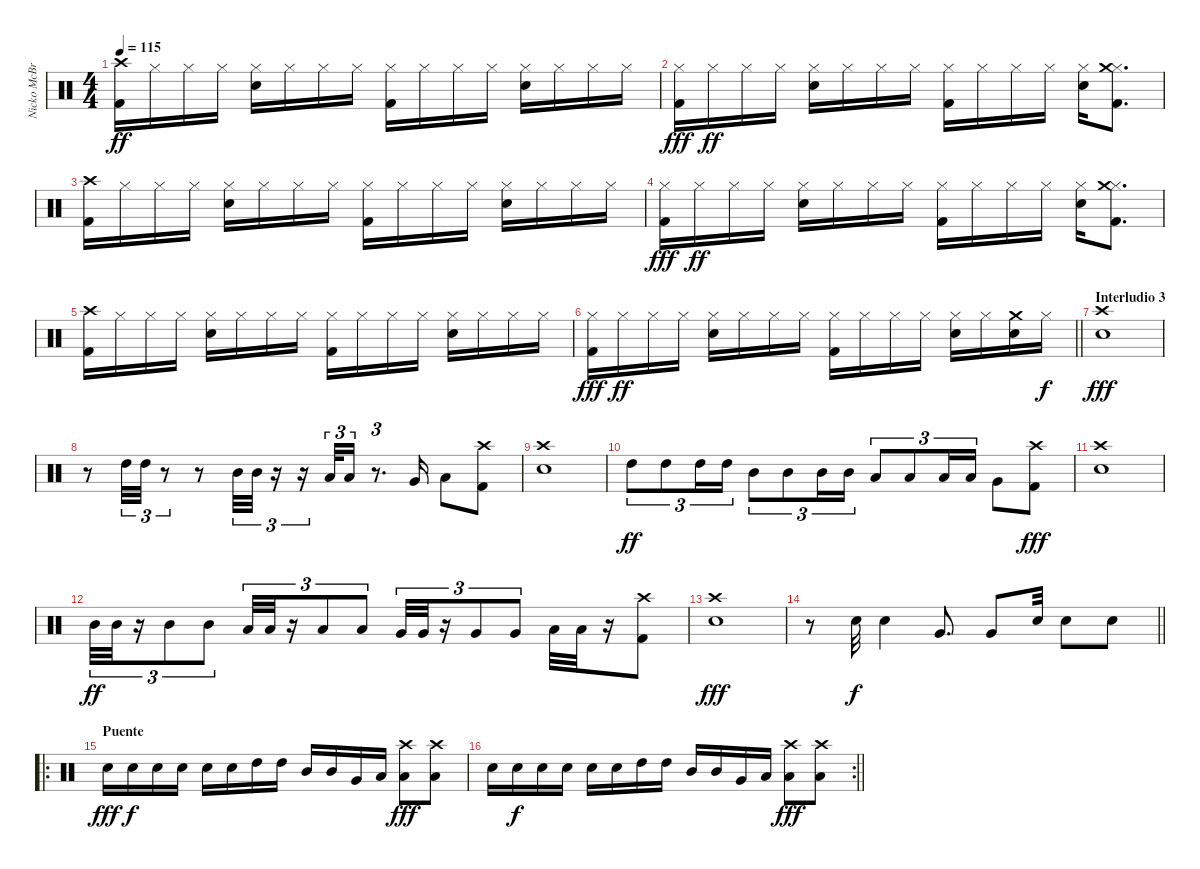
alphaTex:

\track ("Nicko McBrain" "Nicko McBr") {instrument percussion}
\staff {score}
\articulation defaults
\ts (4 4)
\tempo 115
\clef neutral
\ks c
("Kick (hit) 2" "Crash high (hit)").16{dy ff} "Hi-Hat (closed)".16 "Hi-Hat (closed)".16 "Hi-Hat (closed)".16 ("Snare (hit) 2" "Hi-Hat (closed)").16 "Hi-Hat (closed)".16 "Hi-Hat (closed)".16 "Hi-Hat (closed)".16 ("Kick (hit) 2" "Hi-Hat (closed)").16 "Hi-Hat (closed)".16 "Hi-Hat (closed)".16 "Hi-Hat (closed)".16 ("Snare (hit) 2" "Hi-Hat (closed)").16 "Hi-Hat (closed)".16 "Hi-Hat (closed)".16 "Hi-Hat (closed)".16 |
("Kick (hit) 2" "Hi-Hat (closed)").16{dy fff} "Hi-Hat (closed)".16{dy ff} "Hi-Hat (closed)".16 "Hi-Hat (closed)".16 ("Snare (hit) 2" "Hi-Hat (closed)").16 "Hi-Hat (closed)".16 "Hi-Hat (closed)".16 "Hi-Hat (closed)".16 ("Kick (hit) 2" "Hi-Hat (closed)").16 "Hi-Hat (closed)".16 "Hi-Hat (closed)".16 "Hi-Hat (closed)".16 ("Snare (hit) 2" "Hi-Hat (closed)").16 ("Hi-Hat (closed)" "Kick (hit) 2" "Crash medium (hit)").8{d} |
("Kick (hit) 2" "Crash high (hit)").16 "Hi-Hat (closed)".16 "Hi-Hat (closed)".16 "Hi-Hat (closed)".16 ("Snare (hit) 2" "Hi-Hat (closed)").16 "Hi-Hat (closed)".16 "Hi-Hat (closed)".16 "Hi-Hat (closed)".16 ("Kick (hit) 2" "Hi-Hat (closed)").16 "Hi-Hat (closed)".16 "Hi-Hat (closed)".16 "Hi-Hat (closed)".16 ("Snare (hit) 2" "Hi-Hat (closed)").16 "Hi-Hat (closed)".16 "Hi-Hat (closed)".16 "Hi-Hat (closed)".16 |
("Kick (hit) 2" "Hi-Hat (closed)").16{dy fff} "Hi-Hat (closed)".16{dy ff} "Hi-Hat (closed)".16 "Hi-Hat (closed)".16 ("Snare (hit) 2" "Hi-Hat (closed)").16 "Hi-Hat (closed)".16 "Hi-Hat (closed)".16 "Hi-Hat (closed)".16 ("Kick (hit) 2" "Hi-Hat (closed)").16 "Hi-Hat (closed)".16 "Hi-Hat (closed)".16 "Hi-Hat (closed)".16 ("Snare (hit) 2" "Hi-Hat (closed)").16 ("Hi-Hat (closed)" "Kick (hit) 2" "Crash medium (hit)").8{d} |
("Kick (hit) 2" "Crash high (hit)").16 "Hi-Hat (closed)".16 "Hi-Hat (closed)".16 "Hi-Hat (closed)".16 ("Snare (hit) 2" "Hi-Hat (closed)").16 "Hi-Hat (closed)".16 "Hi-Hat (closed)".16 "Hi-Hat (closed)".16 ("Kick (hit) 2" "Hi-Hat (closed)").16 "Hi-Hat (closed)".16 "Hi-Hat (closed)".16 "Hi-Hat (closed)".16 ("Snare (hit) 2" "Hi-Hat (closed)").16 "Hi-Hat (closed)".16 "Hi-Hat (closed)".16 "Hi-Hat (closed)".16 |
\barLineRight lightlight
("Kick (hit) 2" "Hi-Hat (closed)").16{dy fff} "Hi-Hat (closed)".16{dy ff} "Hi-Hat (closed)".16 "Hi-Hat (closed)".16 ("Snare (hit) 2" "Hi-Hat (closed)").16 "Hi-Hat (closed)".16 "Hi-Hat (closed)".16 "Hi-Hat (closed)".16 ("Kick (hit) 2" "Hi-Hat (closed)").16 "Hi-Hat (closed)".16 "Hi-Hat (closed)".16 "Hi-Hat (closed)".16 ("Snare (hit) 2" "Hi-Hat (closed)").16 "Hi-Hat (closed)".16 ("Snare (hit) 2" "Crash medium (hit)").16 "Hi-Hat (closed)".16{dy f} |
\section ("" "Interludio 3")
("Snare (hit) 2" "Crash high (hit)").1{dy fff} |
r.8 "High Tom (hit)".32{tu (3 2)} "High Tom (hit)".32{tu (3 2)} r.8{tu (3 2)} r.8 "Mid Tom (hit)".32{tu (3 2)} "Mid Tom (hit)".32{tu (3 2)} r.16{tu (3 2)} r.16{tu (3 2)} "Low Tom (hit)".32{tu (3 2)} "Low Tom (hit)".16{tu (3 2)} r.8{d tu (3 2)} "Very Low Tom (hit)".16 "Low Floor Tom (hit)".8 ("Kick (hit) 2" "Crash high (hit)").8 |
("Snare (hit) 2" "Crash high (hit)").1 |
"High Tom (hit)".8{tu (3 2) dy ff} "High Tom (hit)".8{tu (3 2)} "High Tom (hit)".16{tu (3 2)} "High Tom (hit)".16{tu (3 2)} "Mid Tom (hit)".8{tu (3 2)} "Mid Tom (hit)".8{tu (3 2)} "Mid Tom (hit)".16{tu (3 2)} "Mid Tom (hit)".16{tu (3 2)} "Low Tom (hit)".8{tu (3 2)} "Low Tom (hit)".8{tu (3 2)} "Low Tom (hit)".16{tu (3 2)} "Low Tom (hit)".16{tu (3 2)} "Very Low Tom (hit)".8 ("Kick (hit) 2" "Crash high (hit)").8{dy fff} |
("Snare (hit) 2" "Crash high (hit)").1 |
"Mid Tom (hit)".32{tu (3 2) dy ff} "Mid Tom (hit)".32{tu (3 2)} r.16{tu (3 2)} "Mid Tom (hit)".8{tu (3 2)} "Mid Tom (hit)".8{tu (3 2)} "Low Tom (hit)".32{tu (3 2)} "Low Tom (hit)".32{tu (3 2)} r.16{tu (3 2)} "Low Tom (hit)".8{tu (3 2)} "Low Tom (hit)".8{tu (3 2)} "Very Low Tom (hit)".32{tu (3 2)} "Very Low Tom (hit)".32{tu (3 2)} r.16{tu (3 2)} "Very Low Tom (hit)".8{tu (3 2)} "Very Low Tom (hit)".8{tu (3 2)} "Low Floor Tom (hit)".32 "Low Floor Tom (hit)".32 r.16 ("Kick (hit) 2" "Crash high (hit)").8 |
("Snare (hit) 2" "Crash high (hit)").1{dy fff} |
\barLineRight lightlight
r.8 "Snare (hit) 2".32{dy f} "Snare (hit) 2".4 "Very Low Tom (hit)".8{d} "Very Low Tom (hit)".8 "Snare (hit) 2".32 "Snare (hit) 2".8 "Snare (hit) 2".8 |
\ro
\section ("" "Puente")
"Snare (hit) 2".16{dy fff} "Snare (hit) 2".16{dy f} "Snare (hit) 2".16 "Snare (hit) 2".16 "Snare (hit) 2".16 "Snare (hit) 2".16 "High Tom (hit)".16 "High Tom (hit)".16 "Mid Tom (hit)".16 "Mid Tom (hit)".16 "Very Low Tom (hit)".16 "Low Floor Tom (hit)".16 ("Low Tom (hit)" "Crash high (hit)").8{dy fff} ("Low Tom (hit)" "Crash high (hit)").8 |
\rc 2
\barLineRight lightlight "Snare (hit) 2".16 "Snare (hit) 2".16{dy f} "Snare (hit) 2".16 "Snare (hit) 2".16 "Snare (hit) 2".16 "Snare (hit) 2".16 "High Tom (hit)".16 "High Tom (hit)".16 "Mid Tom (hit)".16 "Mid Tom (hit)".16 "Very Low Tom (hit)".16 "Low Floor Tom (hit)".16
("Low Tom (hit)" "Crash high (hit)").8{dy fff} ("Low Tom (hit)" "Crash high (hit)").8
